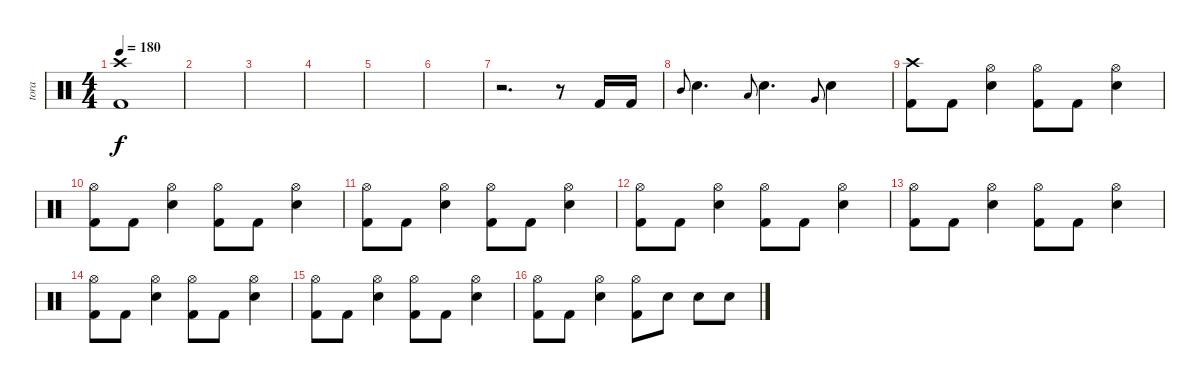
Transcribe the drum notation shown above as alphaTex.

\track ("tora" "tora") {instrument percussion}
\staff {score}
\articulation defaults
\ts (4 4)
\tempo 180
\clef neutral
\ks c
("Crash high (hit)" "Kick (hit) 2").1{dy f} |
|
|
|
|
|
r.2{d} r.8 "Kick (hit) 2".16 "Kick (hit) 2".16 |
"Mid Tom (hit)".8{gr onbeat} "Snare (hit) 2".4{d} "Low Tom (hit)".8{gr onbeat} "Snare (hit) 2".4{d} "Very Low Tom (hit)".8{gr onbeat} "Snare (hit) 2".4 |
("Crash high (hit)" "Kick (hit) 2").8 "Kick (hit) 2".8 ("Hi-Hat (open)" "Snare (hit) 2").4 ("Hi-Hat (open)" "Kick (hit) 2").8 "Kick (hit) 2".8 ("Hi-Hat (open)" "Snare (hit) 2").4 |
("Hi-Hat (open)" "Kick (hit) 2").8 "Kick (hit) 2".8 ("Hi-Hat (open)" "Snare (hit) 2").4 ("Hi-Hat (open)" "Kick (hit) 2").8 "Kick (hit) 2".8 ("Hi-Hat (open)" "Snare (hit) 2").4 |
("Hi-Hat (open)" "Kick (hit) 2").8 "Kick (hit) 2".8 ("Hi-Hat (open)" "Snare (hit) 2").4 ("Hi-Hat (open)" "Kick (hit) 2").8 "Kick (hit) 2".8 ("Hi-Hat (open)" "Snare (hit) 2").4 |
("Hi-Hat (open)" "Kick (hit) 2").8 "Kick (hit) 2".8 ("Hi-Hat (open)" "Snare (hit) 2").4 ("Hi-Hat (open)" "Kick (hit) 2").8 "Kick (hit) 2".8 ("Hi-Hat (open)" "Snare (hit) 2").4 |
("Hi-Hat (open)" "Kick (hit) 2").8 "Kick (hit) 2".8 ("Hi-Hat (open)" "Snare (hit) 2").4 ("Hi-Hat (open)" "Kick (hit) 2").8 "Kick (hit) 2".8 ("Hi-Hat (open)" "Snare (hit) 2").4 |
("Hi-Hat (open)" "Kick (hit) 2").8 "Kick (hit) 2".8 ("Hi-Hat (open)" "Snare (hit) 2").4 ("Hi-Hat (open)" "Kick (hit) 2").8 "Kick (hit) 2".8 ("Hi-Hat (open)" "Snare (hit) 2").4 |
("Hi-Hat (open)" "Kick (hit) 2").8 "Kick (hit) 2".8 ("Hi-Hat (open)" "Snare (hit) 2").4 ("Hi-Hat (open)" "Kick (hit) 2").8 "Kick (hit) 2".8 ("Hi-Hat (open)" "Snare (hit) 2").4 |
("Hi-Hat (open)" "Kick (hit) 2").8 "Kick (hit) 2".8 ("Hi-Hat (open)" "Snare (hit) 2").4 ("Hi-Hat (open)" "Kick (hit) 2").8 "Snare (hit) 2".8 "Snare (hit) 2".8 "Snare (hit) 2".8
